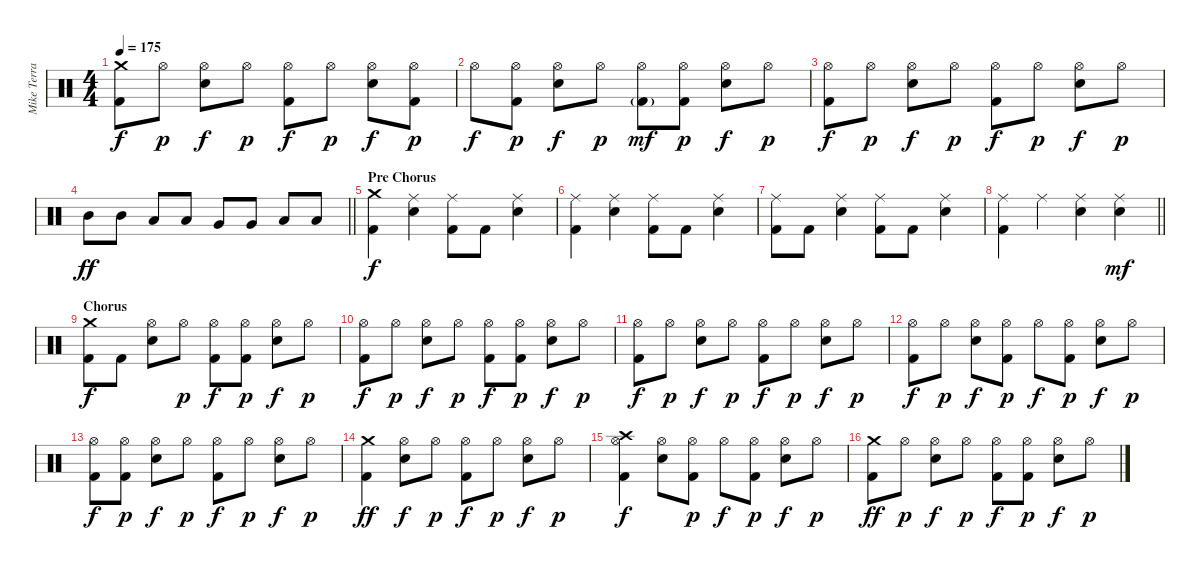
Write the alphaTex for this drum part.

\track ("Mike Terrana" "Mike Terra") {instrument percussion}
\staff {score}
\articulation defaults
\ts (4 4)
\tempo 175
\clef neutral
\ks c
("Crash medium (hit)" "Kick (hit) 2").8{dy f} "Hi-Hat (open)".8{dy p} ("Hi-Hat (open)" "Snare (hit) 2").8{dy f} "Hi-Hat (open)".8{dy p} ("Hi-Hat (open)" "Kick (hit) 2").8{dy f} "Hi-Hat (open)".8{dy p} ("Hi-Hat (open)" "Snare (hit) 2").8{dy f} ("Hi-Hat (open)" "Kick (hit) 2").8{dy p} |
"Hi-Hat (open)".8{dy f} ("Hi-Hat (open)" "Kick (hit) 2").8{dy p} ("Hi-Hat (open)" "Snare (hit) 2").8{dy f} "Hi-Hat (open)".8{dy p} ("Hi-Hat (open)" "Kick (hit) 2"{g}).8{dy mf} ("Hi-Hat (open)" "Kick (hit) 2").8{dy p} ("Hi-Hat (open)" "Snare (hit) 2").8{dy f} "Hi-Hat (open)".8{dy p} |
("Hi-Hat (open)" "Kick (hit) 2").8{dy f} "Hi-Hat (open)".8{dy p} ("Hi-Hat (open)" "Snare (hit) 2").8{dy f} "Hi-Hat (open)".8{dy p} ("Hi-Hat (open)" "Kick (hit) 2").8{dy f} "Hi-Hat (open)".8{dy p} ("Hi-Hat (open)" "Snare (hit) 2").8{dy f} "Hi-Hat (open)".8{dy p} |
\barLineRight lightlight "Mid Tom (hit)".8{dy ff} "Mid Tom (hit)".8 "Low Tom (hit)".8 "Low Tom (hit)".8 "Very Low Tom (hit)".8 "Very Low Tom (hit)".8 "Low Floor Tom (hit)".8 "Low Floor Tom (hit)".8
|
\section ("" "Pre Chorus")
("Crash medium (hit)" "Kick (hit) 2").4{dy f} ("Ride (middle)" "Snare (hit) 2").4 ("Ride (middle)" "Kick (hit) 2").8 "Kick (hit) 2".8 ("Ride (middle)" "Snare (hit) 2").4 |
("Ride (middle)" "Kick (hit) 2").4 ("Ride (middle)" "Snare (hit) 2").4 ("Ride (middle)" "Kick (hit) 2").8 "Kick (hit) 2".8 ("Ride (middle)" "Snare (hit) 2").4 |
("Ride (middle)" "Kick (hit) 2").8 "Kick (hit) 2".8 ("Ride (middle)" "Snare (hit) 2").4 ("Ride (middle)" "Kick (hit) 2").8 "Kick (hit) 2".8 ("Ride (middle)" "Snare (hit) 2").4 |
\barLineRight lightlight
("Ride (middle)" "Kick (hit) 2").4 "Ride (middle)".4 ("Ride (middle)" "Snare (hit) 2").4 ("Ride (middle)" "Snare (hit) 2").4{dy mf} |
\section ("" "Chorus")
("Crash medium (hit)" "Kick (hit) 2").8{dy f} "Kick (hit) 2".8 ("Hi-Hat (open)" "Snare (hit) 2").8 "Hi-Hat (open)".8{dy p} ("Hi-Hat (open)" "Kick (hit) 2").8{dy f} ("Hi-Hat (open)" "Kick (hit) 2").8{dy p} ("Hi-Hat (open)" "Snare (hit) 2").8{dy f} "Hi-Hat (open)".8{dy p} |
("Hi-Hat (open)" "Kick (hit) 2").8{dy f} "Hi-Hat (open)".8{dy p} ("Hi-Hat (open)" "Snare (hit) 2").8{dy f} "Hi-Hat (open)".8{dy p} ("Hi-Hat (open)" "Kick (hit) 2").8{dy f} ("Hi-Hat (open)" "Kick (hit) 2").8{dy p} ("Hi-Hat (open)" "Snare (hit) 2").8{dy f} "Hi-Hat (open)".8{dy p} |
("Hi-Hat (open)" "Kick (hit) 2").8{dy f} "Hi-Hat (open)".8{dy p} ("Hi-Hat (open)" "Snare (hit) 2").8{dy f} "Hi-Hat (open)".8{dy p} ("Hi-Hat (open)" "Kick (hit) 2").8{dy f} "Hi-Hat (open)".8{dy p} ("Hi-Hat (open)" "Snare (hit) 2").8{dy f} "Hi-Hat (open)".8{dy p} |
("Hi-Hat (open)" "Kick (hit) 2").8{dy f} "Hi-Hat (open)".8{dy p} ("Hi-Hat (open)" "Snare (hit) 2").8{dy f} ("Hi-Hat (open)" "Kick (hit) 2").8{dy p} "Hi-Hat (open)".8{dy f} ("Hi-Hat (open)" "Kick (hit) 2").8{dy p} ("Hi-Hat (open)" "Snare (hit) 2").8{dy f} "Hi-Hat (open)".8{dy p} |
("Hi-Hat (open)" "Kick (hit) 2").8{dy f} ("Hi-Hat (open)" "Kick (hit) 2").8{dy p} ("Hi-Hat (open)" "Snare (hit) 2").8{dy f} "Hi-Hat (open)".8{dy p} ("Hi-Hat (open)" "Kick (hit) 2").8{dy f} "Hi-Hat (open)".8{dy p} ("Hi-Hat (open)" "Snare (hit) 2").8{dy f} "Hi-Hat (open)".8{dy p} |
("Crash medium (hit)" "Kick (hit) 2").4{dy ff} ("Hi-Hat (open)" "Snare (hit) 2").8{dy f} "Hi-Hat (open)".8{dy p} ("Hi-Hat (open)" "Kick (hit) 2").8{dy f} "Hi-Hat (open)".8{dy p} ("Hi-Hat (open)" "Snare (hit) 2").8{dy f} "Hi-Hat (open)".8{dy p} |
("Hi-Hat (open)" "Crash high (hit)" "Kick (hit) 2").4{dy f} ("Hi-Hat (open)" "Snare (hit) 2").8 ("Hi-Hat (open)" "Kick (hit) 2").8{dy p} "Hi-Hat (open)".8{dy f} ("Hi-Hat (open)" "Kick (hit) 2").8{dy p} ("Hi-Hat (open)" "Snare (hit) 2").8{dy f} "Hi-Hat (open)".8{dy p} |
("Crash medium (hit)" "Kick (hit) 2").8{dy ff} "Hi-Hat (open)".8{dy p} ("Hi-Hat (open)" "Snare (hit) 2").8{dy f} "Hi-Hat (open)".8{dy p} ("Hi-Hat (open)" "Kick (hit) 2").8{dy f} ("Hi-Hat (open)" "Kick (hit) 2").8{dy p} ("Hi-Hat (open)" "Snare (hit) 2").8{dy f} "Hi-Hat (open)".8{dy p}
